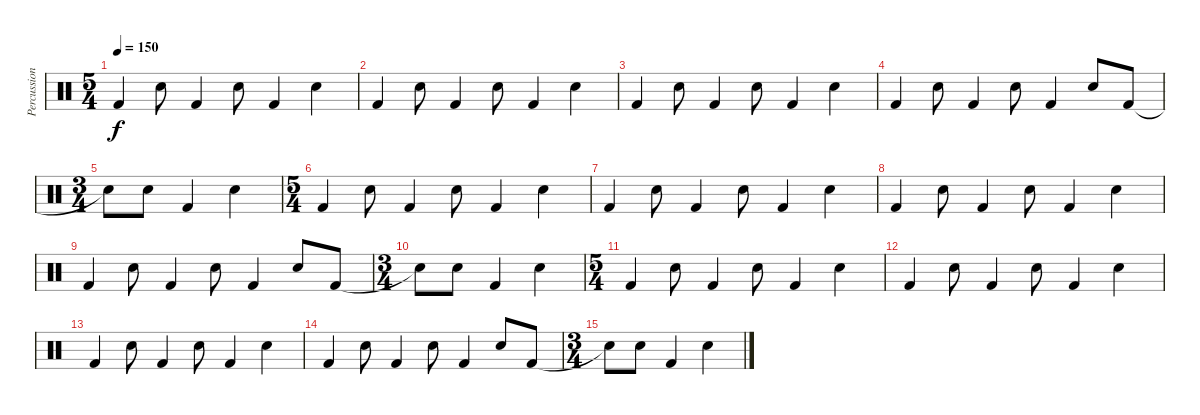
\track ("Percussion" "Percussion") {instrument percussion}
\staff {score}
\articulation defaults
\ts (5 4)
\tempo 150
\clef neutral
\ks c "Kick (hit) 2".4{dy f} "Snare (hit) 2".8 "Kick (hit) 2".4 "Snare (hit) 2".8 "Kick (hit) 2".4 "Snare (hit) 2".4
|
"Kick (hit) 2".4 "Snare (hit) 2".8 "Kick (hit) 2".4 "Snare (hit) 2".8 "Kick (hit) 2".4 "Snare (hit) 2".4 |
"Kick (hit) 2".4 "Snare (hit) 2".8 "Kick (hit) 2".4 "Snare (hit) 2".8 "Kick (hit) 2".4 "Snare (hit) 2".4 |
"Kick (hit) 2".4 "Snare (hit) 2".8 "Kick (hit) 2".4 "Snare (hit) 2".8 "Kick (hit) 2".4 "Snare (hit) 2".8 "Kick (hit) 2".8 |
\ts (3 4)
"Snare (hit)"{t}.8 "Snare (hit) 2".8 "Kick (hit) 2".4 "Snare (hit) 2".4 |
\ts (5 4)
"Kick (hit) 2".4 "Snare (hit) 2".8 "Kick (hit) 2".4 "Snare (hit) 2".8 "Kick (hit) 2".4 "Snare (hit) 2".4 |
"Kick (hit) 2".4 "Snare (hit) 2".8 "Kick (hit) 2".4 "Snare (hit) 2".8 "Kick (hit) 2".4 "Snare (hit) 2".4 |
"Kick (hit) 2".4 "Snare (hit) 2".8 "Kick (hit) 2".4 "Snare (hit) 2".8 "Kick (hit) 2".4 "Snare (hit) 2".4 |
"Kick (hit) 2".4 "Snare (hit) 2".8 "Kick (hit) 2".4 "Snare (hit) 2".8 "Kick (hit) 2".4 "Snare (hit) 2".8 "Kick (hit) 2".8 |
\ts (3 4)
"Snare (hit)"{t}.8 "Snare (hit) 2".8 "Kick (hit) 2".4 "Snare (hit) 2".4 |
\ts (5 4)
"Kick (hit) 2".4 "Snare (hit) 2".8 "Kick (hit) 2".4 "Snare (hit) 2".8 "Kick (hit) 2".4 "Snare (hit) 2".4 |
"Kick (hit) 2".4 "Snare (hit) 2".8 "Kick (hit) 2".4 "Snare (hit) 2".8 "Kick (hit) 2".4 "Snare (hit) 2".4 |
"Kick (hit) 2".4 "Snare (hit) 2".8 "Kick (hit) 2".4 "Snare (hit) 2".8 "Kick (hit) 2".4 "Snare (hit) 2".4 |
"Kick (hit) 2".4 "Snare (hit) 2".8 "Kick (hit) 2".4 "Snare (hit) 2".8 "Kick (hit) 2".4 "Snare (hit) 2".8 "Kick (hit) 2".8 |
\ts (3 4)
"Snare (hit)"{t}.8 "Snare (hit) 2".8 "Kick (hit) 2".4 "Snare (hit) 2".4
